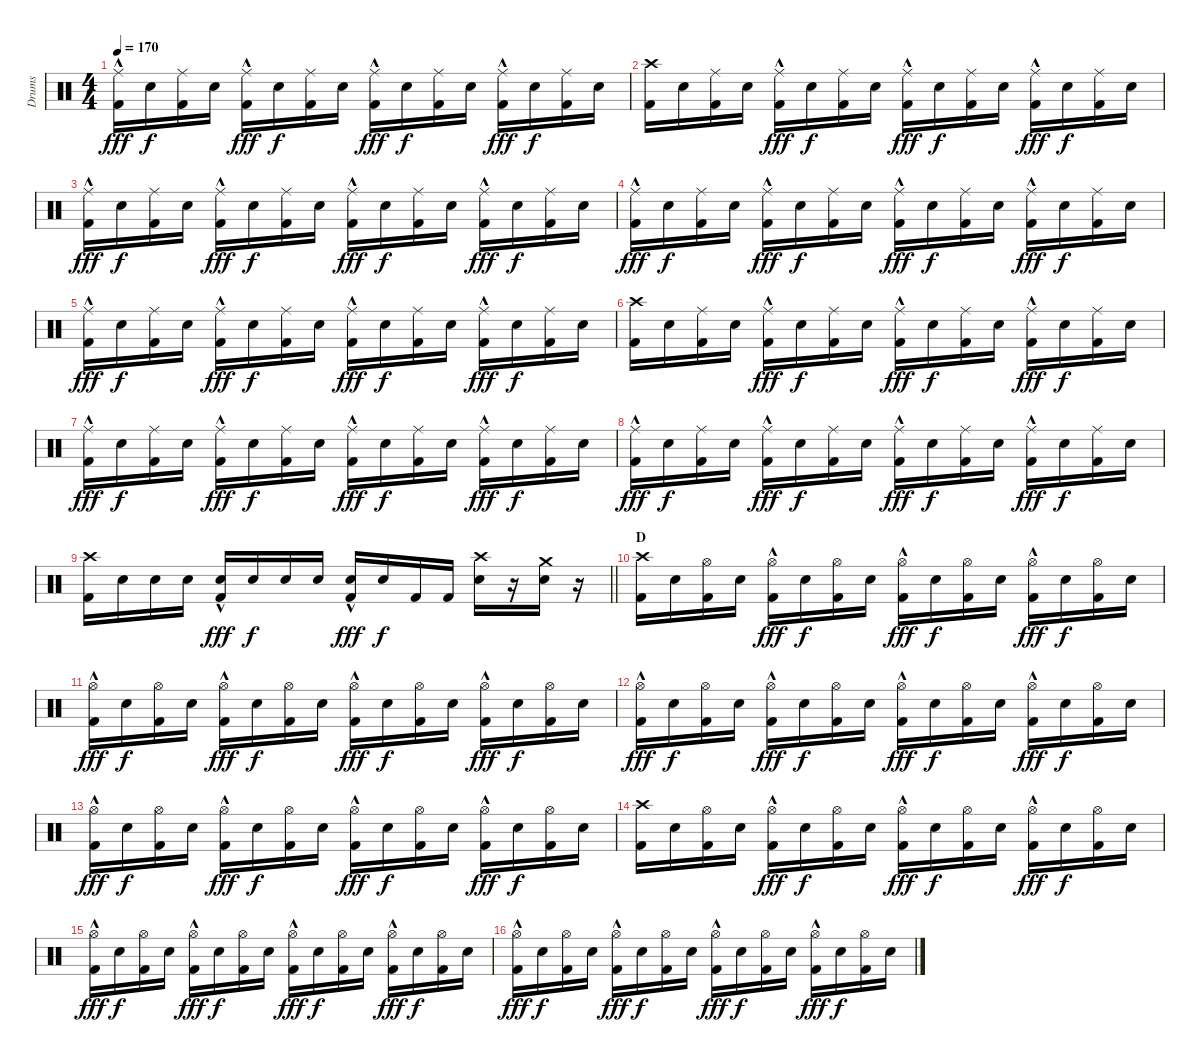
\track ("Drums" "Drums") {instrument percussion}
\staff {score}
\articulation defaults
\ts (4 4)
\tempo 170
\clef neutral
\ks c
("Ride (middle)"{hac} "Kick (hit) 2").16{dy fff} "Snare (hit) 2".16{dy f} ("Ride (middle)" "Kick (hit) 2").16 "Snare (hit) 2".16 ("Ride (middle)"{hac} "Kick (hit) 2").16{dy fff} "Snare (hit) 2".16{dy f} ("Ride (middle)" "Kick (hit) 2").16 "Snare (hit) 2".16 ("Ride (middle)"{hac} "Kick (hit) 2").16{dy fff} "Snare (hit) 2".16{dy f} ("Ride (middle)" "Kick (hit) 2").16 "Snare (hit) 2".16 ("Ride (middle)"{hac} "Kick (hit) 2").16{dy fff} "Snare (hit) 2".16{dy f} ("Ride (middle)" "Kick (hit) 2").16 "Snare (hit) 2".16 |
("Crash high (hit)" "Kick (hit) 2").16 "Snare (hit) 2".16 ("Ride (middle)" "Kick (hit) 2").16 "Snare (hit) 2".16 ("Ride (middle)"{hac} "Kick (hit) 2").16{dy fff} "Snare (hit) 2".16{dy f} ("Ride (middle)" "Kick (hit) 2").16 "Snare (hit) 2".16 ("Ride (middle)"{hac} "Kick (hit) 2").16{dy fff} "Snare (hit) 2".16{dy f} ("Ride (middle)" "Kick (hit) 2").16 "Snare (hit) 2".16 ("Ride (middle)"{hac} "Kick (hit) 2").16{dy fff} "Snare (hit) 2".16{dy f} ("Ride (middle)" "Kick (hit) 2").16 "Snare (hit) 2".16 |
("Ride (middle)"{hac} "Kick (hit) 2").16{dy fff} "Snare (hit) 2".16{dy f} ("Ride (middle)" "Kick (hit) 2").16 "Snare (hit) 2".16 ("Ride (middle)"{hac} "Kick (hit) 2").16{dy fff} "Snare (hit) 2".16{dy f} ("Ride (middle)" "Kick (hit) 2").16 "Snare (hit) 2".16 ("Ride (middle)"{hac} "Kick (hit) 2").16{dy fff} "Snare (hit) 2".16{dy f} ("Ride (middle)" "Kick (hit) 2").16 "Snare (hit) 2".16 ("Ride (middle)"{hac} "Kick (hit) 2").16{dy fff} "Snare (hit) 2".16{dy f} ("Ride (middle)" "Kick (hit) 2").16 "Snare (hit) 2".16 |
("Ride (middle)"{hac} "Kick (hit) 2").16{dy fff} "Snare (hit) 2".16{dy f} ("Ride (middle)" "Kick (hit) 2").16 "Snare (hit) 2".16 ("Ride (middle)"{hac} "Kick (hit) 2").16{dy fff} "Snare (hit) 2".16{dy f} ("Ride (middle)" "Kick (hit) 2").16 "Snare (hit) 2".16 ("Ride (middle)"{hac} "Kick (hit) 2").16{dy fff} "Snare (hit) 2".16{dy f} ("Ride (middle)" "Kick (hit) 2").16 "Snare (hit) 2".16 ("Ride (middle)"{hac} "Kick (hit) 2").16{dy fff} "Snare (hit) 2".16{dy f} ("Ride (middle)" "Kick (hit) 2").16 "Snare (hit) 2".16 |
("Ride (middle)"{hac} "Kick (hit) 2").16{dy fff} "Snare (hit) 2".16{dy f} ("Ride (middle)" "Kick (hit) 2").16 "Snare (hit) 2".16 ("Ride (middle)"{hac} "Kick (hit) 2").16{dy fff} "Snare (hit) 2".16{dy f} ("Ride (middle)" "Kick (hit) 2").16 "Snare (hit) 2".16 ("Ride (middle)"{hac} "Kick (hit) 2").16{dy fff} "Snare (hit) 2".16{dy f} ("Ride (middle)" "Kick (hit) 2").16 "Snare (hit) 2".16 ("Ride (middle)"{hac} "Kick (hit) 2").16{dy fff} "Snare (hit) 2".16{dy f} ("Ride (middle)" "Kick (hit) 2").16 "Snare (hit) 2".16 |
("Crash high (hit)" "Kick (hit) 2").16 "Snare (hit) 2".16 ("Ride (middle)" "Kick (hit) 2").16 "Snare (hit) 2".16 ("Ride (middle)"{hac} "Kick (hit) 2").16{dy fff} "Snare (hit) 2".16{dy f} ("Ride (middle)" "Kick (hit) 2").16 "Snare (hit) 2".16 ("Ride (middle)"{hac} "Kick (hit) 2").16{dy fff} "Snare (hit) 2".16{dy f} ("Ride (middle)" "Kick (hit) 2").16 "Snare (hit) 2".16 ("Ride (middle)"{hac} "Kick (hit) 2").16{dy fff} "Snare (hit) 2".16{dy f} ("Ride (middle)" "Kick (hit) 2").16 "Snare (hit) 2".16 |
("Ride (middle)"{hac} "Kick (hit) 2").16{dy fff} "Snare (hit) 2".16{dy f} ("Ride (middle)" "Kick (hit) 2").16 "Snare (hit) 2".16 ("Ride (middle)"{hac} "Kick (hit) 2").16{dy fff} "Snare (hit) 2".16{dy f} ("Ride (middle)" "Kick (hit) 2").16 "Snare (hit) 2".16 ("Ride (middle)"{hac} "Kick (hit) 2").16{dy fff} "Snare (hit) 2".16{dy f} ("Ride (middle)" "Kick (hit) 2").16 "Snare (hit) 2".16 ("Ride (middle)"{hac} "Kick (hit) 2").16{dy fff} "Snare (hit) 2".16{dy f} ("Ride (middle)" "Kick (hit) 2").16 "Snare (hit) 2".16 |
("Ride (middle)"{hac} "Kick (hit) 2").16{dy fff} "Snare (hit) 2".16{dy f} ("Ride (middle)" "Kick (hit) 2").16 "Snare (hit) 2".16 ("Ride (middle)"{hac} "Kick (hit) 2").16{dy fff} "Snare (hit) 2".16{dy f} ("Ride (middle)" "Kick (hit) 2").16 "Snare (hit) 2".16 ("Ride (middle)"{hac} "Kick (hit) 2").16{dy fff} "Snare (hit) 2".16{dy f} ("Ride (middle)" "Kick (hit) 2").16 "Snare (hit) 2".16 ("Ride (middle)"{hac} "Kick (hit) 2").16{dy fff} "Snare (hit) 2".16{dy f} ("Ride (middle)" "Kick (hit) 2").16 "Snare (hit) 2".16 |
\barLineRight lightlight
("Crash high (hit)" "Kick (hit) 2").16 "Snare (hit) 2".16 "Snare (hit) 2".16 "Snare (hit) 2".16 ("Snare (hit) 2"{hac} "Kick (hit) 2").16{dy fff} "Snare (hit) 2".16{dy f} "Snare (hit) 2".16 "Snare (hit) 2".16 ("Snare (hit) 2"{hac} "Kick (hit) 2").16{dy fff} "Snare (hit) 2".16{dy f} "Kick (hit) 2".16 "Kick (hit) 2".16 ("Crash high (hit)" "Snare (hit) 2").16 r.16 ("Crash medium (hit)" "Snare (hit) 2").16 r.16 |
\section ("" "D")
("Crash high (hit)" "Kick (hit) 2").16 "Snare (hit) 2".16 ("Hi-Hat (open)" "Kick (hit) 2").16 "Snare (hit) 2".16 ("Hi-Hat (open)"{hac} "Kick (hit) 2").16{dy fff} "Snare (hit) 2".16{dy f} ("Hi-Hat (open)" "Kick (hit) 2").16 "Snare (hit) 2".16 ("Hi-Hat (open)"{hac} "Kick (hit) 2").16{dy fff} "Snare (hit) 2".16{dy f} ("Hi-Hat (open)" "Kick (hit) 2").16 "Snare (hit) 2".16 ("Hi-Hat (open)"{hac} "Kick (hit) 2").16{dy fff} "Snare (hit) 2".16{dy f} ("Hi-Hat (open)" "Kick (hit) 2").16 "Snare (hit) 2".16 |
("Hi-Hat (open)"{hac} "Kick (hit) 2").16{dy fff} "Snare (hit) 2".16{dy f} ("Hi-Hat (open)" "Kick (hit) 2").16 "Snare (hit) 2".16 ("Hi-Hat (open)"{hac} "Kick (hit) 2").16{dy fff} "Snare (hit) 2".16{dy f} ("Hi-Hat (open)" "Kick (hit) 2").16 "Snare (hit) 2".16 ("Hi-Hat (open)"{hac} "Kick (hit) 2").16{dy fff} "Snare (hit) 2".16{dy f} ("Hi-Hat (open)" "Kick (hit) 2").16 "Snare (hit) 2".16 ("Hi-Hat (open)"{hac} "Kick (hit) 2").16{dy fff} "Snare (hit) 2".16{dy f} ("Hi-Hat (open)" "Kick (hit) 2").16 "Snare (hit) 2".16 |
("Hi-Hat (open)"{hac} "Kick (hit) 2").16{dy fff} "Snare (hit) 2".16{dy f} ("Hi-Hat (open)" "Kick (hit) 2").16 "Snare (hit) 2".16 ("Hi-Hat (open)"{hac} "Kick (hit) 2").16{dy fff} "Snare (hit) 2".16{dy f} ("Hi-Hat (open)" "Kick (hit) 2").16 "Snare (hit) 2".16 ("Hi-Hat (open)"{hac} "Kick (hit) 2").16{dy fff} "Snare (hit) 2".16{dy f} ("Hi-Hat (open)" "Kick (hit) 2").16 "Snare (hit) 2".16 ("Hi-Hat (open)"{hac} "Kick (hit) 2").16{dy fff} "Snare (hit) 2".16{dy f} ("Hi-Hat (open)" "Kick (hit) 2").16 "Snare (hit) 2".16 |
("Hi-Hat (open)"{hac} "Kick (hit) 2").16{dy fff} "Snare (hit) 2".16{dy f} ("Hi-Hat (open)" "Kick (hit) 2").16 "Snare (hit) 2".16 ("Hi-Hat (open)"{hac} "Kick (hit) 2").16{dy fff} "Snare (hit) 2".16{dy f} ("Hi-Hat (open)" "Kick (hit) 2").16 "Snare (hit) 2".16 ("Hi-Hat (open)"{hac} "Kick (hit) 2").16{dy fff} "Snare (hit) 2".16{dy f} ("Hi-Hat (open)" "Kick (hit) 2").16 "Snare (hit) 2".16 ("Hi-Hat (open)"{hac} "Kick (hit) 2").16{dy fff} "Snare (hit) 2".16{dy f} ("Hi-Hat (open)" "Kick (hit) 2").16 "Snare (hit) 2".16 |
("Crash high (hit)" "Kick (hit) 2").16 "Snare (hit) 2".16 ("Hi-Hat (open)" "Kick (hit) 2").16 "Snare (hit) 2".16 ("Hi-Hat (open)"{hac} "Kick (hit) 2").16{dy fff} "Snare (hit) 2".16{dy f} ("Hi-Hat (open)" "Kick (hit) 2").16 "Snare (hit) 2".16 ("Hi-Hat (open)"{hac} "Kick (hit) 2").16{dy fff} "Snare (hit) 2".16{dy f} ("Hi-Hat (open)" "Kick (hit) 2").16 "Snare (hit) 2".16 ("Hi-Hat (open)"{hac} "Kick (hit) 2").16{dy fff} "Snare (hit) 2".16{dy f} ("Hi-Hat (open)" "Kick (hit) 2").16 "Snare (hit) 2".16 |
("Hi-Hat (open)"{hac} "Kick (hit) 2").16{dy fff} "Snare (hit) 2".16{dy f} ("Hi-Hat (open)" "Kick (hit) 2").16 "Snare (hit) 2".16 ("Hi-Hat (open)"{hac} "Kick (hit) 2").16{dy fff} "Snare (hit) 2".16{dy f} ("Hi-Hat (open)" "Kick (hit) 2").16 "Snare (hit) 2".16 ("Hi-Hat (open)"{hac} "Kick (hit) 2").16{dy fff} "Snare (hit) 2".16{dy f} ("Hi-Hat (open)" "Kick (hit) 2").16 "Snare (hit) 2".16 ("Hi-Hat (open)"{hac} "Kick (hit) 2").16{dy fff} "Snare (hit) 2".16{dy f} ("Hi-Hat (open)" "Kick (hit) 2").16 "Snare (hit) 2".16 |
("Hi-Hat (open)"{hac} "Kick (hit) 2").16{dy fff} "Snare (hit) 2".16{dy f} ("Hi-Hat (open)" "Kick (hit) 2").16 "Snare (hit) 2".16 ("Hi-Hat (open)"{hac} "Kick (hit) 2").16{dy fff} "Snare (hit) 2".16{dy f} ("Hi-Hat (open)" "Kick (hit) 2").16 "Snare (hit) 2".16 ("Hi-Hat (open)"{hac} "Kick (hit) 2").16{dy fff} "Snare (hit) 2".16{dy f} ("Hi-Hat (open)" "Kick (hit) 2").16 "Snare (hit) 2".16 ("Hi-Hat (open)"{hac} "Kick (hit) 2").16{dy fff} "Snare (hit) 2".16{dy f} ("Hi-Hat (open)" "Kick (hit) 2").16 "Snare (hit) 2".16
